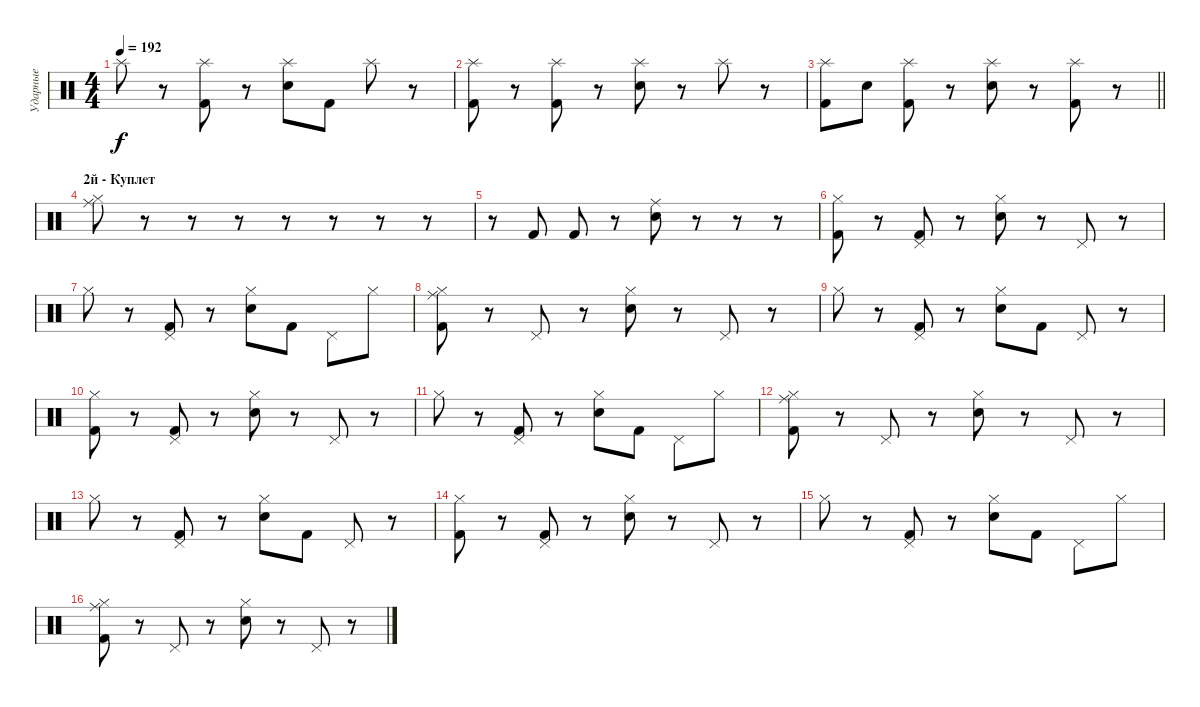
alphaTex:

\track ("Ударные" "Ударные") {instrument percussion}
\staff {score}
\articulation defaults
\ts (4 4)
\tempo 192
\clef neutral
\ks c "Splash (hit)".8{dy f}
r.8 ("Kick (hit) 2" "Splash (hit)").8 r.8 ("Snare (hit) 2" "Splash (hit)").8 "Kick (hit) 2".8 "Splash (hit)".8 r.8 |
("Kick (hit) 2" "Splash (hit)").8 r.8 ("Kick (hit) 2" "Splash (hit)").8 r.8 ("Snare (hit) 2" "Splash (hit)").8 r.8 "Splash (hit)".8 r.8 |
\barLineRight lightlight
("Kick (hit) 2" "Splash (hit)").8 "Snare (hit) 2".8 ("Kick (hit) 2" "Splash (hit)").8 r.8 ("Snare (hit) 2" "Splash (hit)").8 r.8 ("Kick (hit) 2" "Splash (hit)").8 r.8 |
\section ("" "2й - Куплет")
("Hi-Hat (closed)" "Ride (middle)").8 r.8 r.8 r.8 r.8 r.8 r.8 r.8 |
r.8 "Kick (hit) 2".8 "Kick (hit) 2".8 r.8 ("Snare (hit) 2" "Ride (middle)").8 r.8 r.8 r.8 |
("Kick (hit) 2" "Hi-Hat (closed)").8 r.8 ("Kick (hit) 2" "Pedal Hi-Hat (hit)").8 r.8 ("Snare (hit) 2" "Hi-Hat (closed)").8 r.8 "Pedal Hi-Hat (hit)".8 r.8 |
"Hi-Hat (closed)".8 r.8 ("Kick (hit) 2" "Pedal Hi-Hat (hit)").8 r.8 ("Snare (hit) 2" "Hi-Hat (closed)").8 "Kick (hit) 2".8 "Pedal Hi-Hat (hit)".8 "Hi-Hat (closed)".8 |
("Kick (hit) 2" "Hi-Hat (closed)" "Ride (middle)").8 r.8 "Pedal Hi-Hat (hit)".8 r.8 ("Snare (hit) 2" "Hi-Hat (closed)").8 r.8 "Pedal Hi-Hat (hit)".8 r.8 |
"Hi-Hat (closed)".8 r.8 ("Kick (hit) 2" "Pedal Hi-Hat (hit)").8 r.8 ("Snare (hit) 2" "Hi-Hat (closed)").8 "Kick (hit) 2".8 "Pedal Hi-Hat (hit)".8 r.8 |
("Kick (hit) 2" "Hi-Hat (closed)").8 r.8 ("Kick (hit) 2" "Pedal Hi-Hat (hit)").8 r.8 ("Snare (hit) 2" "Hi-Hat (closed)").8 r.8 "Pedal Hi-Hat (hit)".8 r.8 |
"Hi-Hat (closed)".8 r.8 ("Kick (hit) 2" "Pedal Hi-Hat (hit)").8 r.8 ("Snare (hit) 2" "Hi-Hat (closed)").8 "Kick (hit) 2".8 "Pedal Hi-Hat (hit)".8 "Hi-Hat (closed)".8 |
("Kick (hit) 2" "Hi-Hat (closed)" "Ride (middle)").8 r.8 "Pedal Hi-Hat (hit)".8 r.8 ("Snare (hit) 2" "Hi-Hat (closed)").8 r.8 "Pedal Hi-Hat (hit)".8 r.8 |
"Hi-Hat (closed)".8 r.8 ("Kick (hit) 2" "Pedal Hi-Hat (hit)").8 r.8 ("Snare (hit) 2" "Hi-Hat (closed)").8 "Kick (hit) 2".8 "Pedal Hi-Hat (hit)".8 r.8 |
("Kick (hit) 2" "Hi-Hat (closed)").8 r.8 ("Kick (hit) 2" "Pedal Hi-Hat (hit)").8 r.8 ("Snare (hit) 2" "Hi-Hat (closed)").8 r.8 "Pedal Hi-Hat (hit)".8 r.8 |
"Hi-Hat (closed)".8 r.8 ("Kick (hit) 2" "Pedal Hi-Hat (hit)").8 r.8 ("Snare (hit) 2" "Hi-Hat (closed)").8 "Kick (hit) 2".8 "Pedal Hi-Hat (hit)".8 "Hi-Hat (closed)".8 |
("Kick (hit) 2" "Hi-Hat (closed)" "Ride (middle)").8 r.8 "Pedal Hi-Hat (hit)".8 r.8 ("Snare (hit) 2" "Hi-Hat (closed)").8 r.8 "Pedal Hi-Hat (hit)".8 r.8
